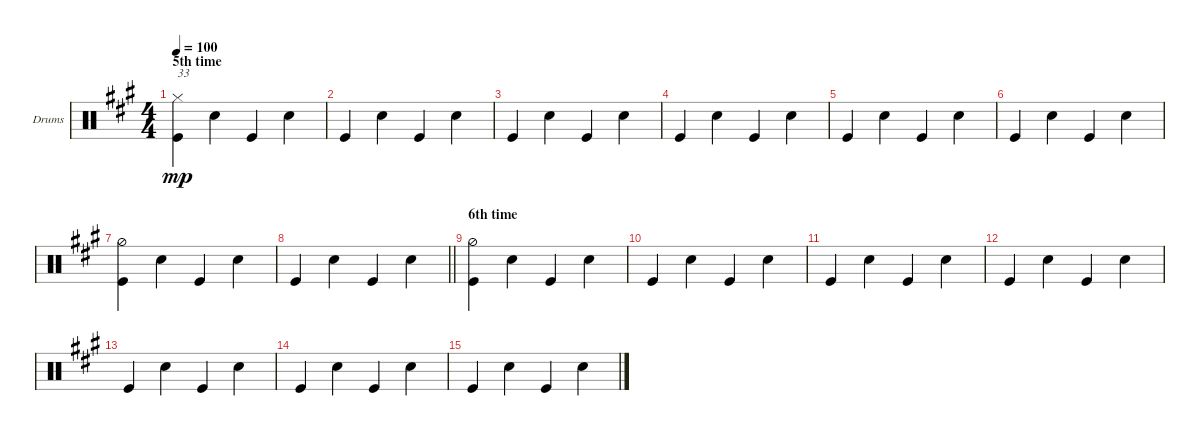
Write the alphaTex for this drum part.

\bracketExtendMode groupsimilarinstruments
\firstSystemTrackNameOrientation horizontal
\otherSystemsTrackNameOrientation horizontal
\track ("Drumkit" "Drums") {instrument percussion}
\staff {score}
\articulation defaults
\ts (4 4)
\section ("" "5th time")
\tempo 100
\clef neutral
\scale
0.333333
\ks f#minor
("Kick (hit)" "Hi-Hat (closed)").4{txt "33" dy mp} "Snare (hit) 2".4 "Kick (hit)".4 "Snare (hit) 2".4 |
\scale
0.333333 "Kick (hit)".4 "Snare (hit) 2".4 "Kick (hit)".4 "Snare (hit) 2".4 |
\scale
0.333333 "Kick (hit)".4 "Snare (hit) 2".4 "Kick (hit)".4 "Snare (hit) 2".4 |
\scale
0.333333 "Kick (hit)".4 "Snare (hit) 2".4 "Kick (hit)".4 "Snare (hit) 2".4 |
\scale
0.333333 "Kick (hit)".4 "Snare (hit) 2".4 "Kick (hit)".4 "Snare (hit) 2".4 |
\scale
0.333333 "Kick (hit)".4 "Snare (hit) 2".4 "Kick (hit)".4 "Snare (hit) 2".4 |
\scale
0.333333 ("Kick (hit)" "Hi-Hat (half)").4 "Snare (hit) 2".4 "Kick (hit)".4 "Snare (hit) 2".4 |
\scale
0.333333
\barLineRight lightlight "Kick (hit)".4 "Snare (hit) 2".4 "Kick (hit)".4 "Snare (hit) 2".4
|
\section ("" "6th time")
\scale
0.333333 ("Kick (hit)" "Hi-Hat (half)").4 "Snare (hit) 2".4 "Kick (hit)".4 "Snare (hit) 2".4 |
\scale
0.333333 "Kick (hit)".4 "Snare (hit) 2".4 "Kick (hit)".4 "Snare (hit) 2".4 |
\scale
0.333333 "Kick (hit)".4 "Snare (hit) 2".4 "Kick (hit)".4 "Snare (hit) 2".4 |
\scale
0.333333 "Kick (hit)".4 "Snare (hit) 2".4 "Kick (hit)".4 "Snare (hit) 2".4 |
\scale
0.333333 "Kick (hit)".4 "Snare (hit) 2".4 "Kick (hit)".4 "Snare (hit) 2".4 |
"Kick (hit)".4 "Snare (hit) 2".4 "Kick (hit)".4 "Snare (hit) 2".4 |
"Kick (hit)".4 "Snare (hit) 2".4 "Kick (hit)".4 "Snare (hit) 2".4
